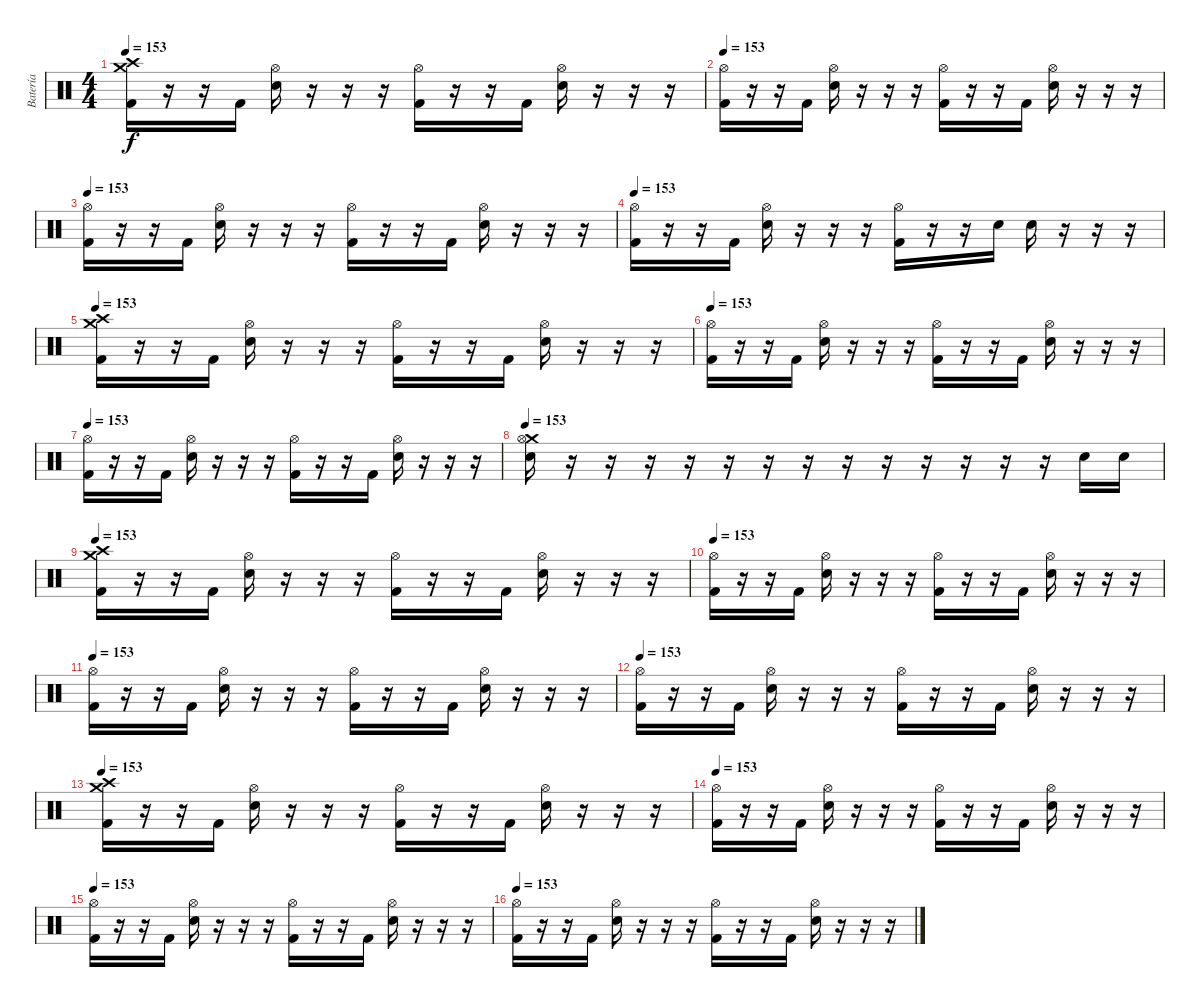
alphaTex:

\track ("Batería" "Batería") {instrument percussion}
\staff {score}
\articulation defaults
\ts (4 4)
\tempo 153
\clef neutral
\ks c
("Crash medium (hit)" "Crash high (hit)" "Kick (hit) 2").16{dy f} r.16 r.16 "Kick (hit) 2".16 ("Hi-Hat (open)" "Snare (hit) 2").16 r.16 r.16 r.16 ("Hi-Hat (open)" "Kick (hit) 2").16 r.16 r.16 "Kick (hit) 2".16 ("Hi-Hat (open)" "Snare (hit) 2").16 r.16 r.16 r.16 |
\tempo 153
("Hi-Hat (open)" "Kick (hit) 2").16 r.16 r.16 "Kick (hit) 2".16 ("Hi-Hat (open)" "Snare (hit) 2").16 r.16 r.16 r.16 ("Hi-Hat (open)" "Kick (hit) 2").16 r.16 r.16 "Kick (hit) 2".16 ("Hi-Hat (open)" "Snare (hit) 2").16 r.16 r.16 r.16 |
\tempo 153
("Hi-Hat (open)" "Kick (hit) 2").16 r.16 r.16 "Kick (hit) 2".16 ("Hi-Hat (open)" "Snare (hit) 2").16 r.16 r.16 r.16 ("Hi-Hat (open)" "Kick (hit) 2").16 r.16 r.16 "Kick (hit) 2".16 ("Hi-Hat (open)" "Snare (hit) 2").16 r.16 r.16 r.16 |
\tempo 153
("Hi-Hat (open)" "Kick (hit) 2").16 r.16 r.16 "Kick (hit) 2".16 ("Hi-Hat (open)" "Snare (hit) 2").16 r.16 r.16 r.16 ("Hi-Hat (open)" "Kick (hit) 2").16 r.16 r.16 "Snare (hit) 2".16 "Snare (hit) 2".16 r.16 r.16 r.16 |
\tempo 153
("Crash medium (hit)" "Crash high (hit)" "Kick (hit) 2").16 r.16 r.16 "Kick (hit) 2".16 ("Hi-Hat (open)" "Snare (hit) 2").16 r.16 r.16 r.16 ("Hi-Hat (open)" "Kick (hit) 2").16 r.16 r.16 "Kick (hit) 2".16 ("Hi-Hat (open)" "Snare (hit) 2").16 r.16 r.16 r.16 |
\tempo 153
("Hi-Hat (open)" "Kick (hit) 2").16 r.16 r.16 "Kick (hit) 2".16 ("Hi-Hat (open)" "Snare (hit) 2").16 r.16 r.16 r.16 ("Hi-Hat (open)" "Kick (hit) 2").16 r.16 r.16 "Kick (hit) 2".16 ("Hi-Hat (open)" "Snare (hit) 2").16 r.16 r.16 r.16 |
\tempo 153
("Hi-Hat (open)" "Kick (hit) 2").16 r.16 r.16 "Kick (hit) 2".16 ("Hi-Hat (open)" "Snare (hit) 2").16 r.16 r.16 r.16 ("Hi-Hat (open)" "Kick (hit) 2").16 r.16 r.16 "Kick (hit) 2".16 ("Hi-Hat (open)" "Snare (hit) 2").16 r.16 r.16 r.16 |
\tempo 153
("Crash medium (hit)" "Hi-Hat (open)" "Snare (hit) 2").16 r.16 r.16 r.16 r.16 r.16 r.16 r.16 r.16 r.16 r.16 r.16 r.16 r.16 "Snare (hit) 2".16 "Snare (hit) 2".16 |
\tempo 153
("Crash medium (hit)" "Crash high (hit)" "Kick (hit) 2").16 r.16 r.16 "Kick (hit) 2".16 ("Hi-Hat (open)" "Snare (hit) 2").16 r.16 r.16 r.16 ("Hi-Hat (open)" "Kick (hit) 2").16 r.16 r.16 "Kick (hit) 2".16 ("Hi-Hat (open)" "Snare (hit) 2").16 r.16 r.16 r.16 |
\tempo 153
("Hi-Hat (open)" "Kick (hit) 2").16 r.16 r.16 "Kick (hit) 2".16 ("Hi-Hat (open)" "Snare (hit) 2").16 r.16 r.16 r.16 ("Hi-Hat (open)" "Kick (hit) 2").16 r.16 r.16 "Kick (hit) 2".16 ("Hi-Hat (open)" "Snare (hit) 2").16 r.16 r.16 r.16 |
\tempo 153
("Hi-Hat (open)" "Kick (hit) 2").16 r.16 r.16 "Kick (hit) 2".16 ("Hi-Hat (open)" "Snare (hit) 2").16 r.16 r.16 r.16 ("Hi-Hat (open)" "Kick (hit) 2").16 r.16 r.16 "Kick (hit) 2".16 ("Hi-Hat (open)" "Snare (hit) 2").16 r.16 r.16 r.16 |
\tempo 153
("Hi-Hat (open)" "Kick (hit) 2").16 r.16 r.16 "Kick (hit) 2".16 ("Hi-Hat (open)" "Snare (hit) 2").16 r.16 r.16 r.16 ("Hi-Hat (open)" "Kick (hit) 2").16 r.16 r.16 "Kick (hit) 2".16 ("Hi-Hat (open)" "Snare (hit) 2").16 r.16 r.16 r.16 |
\tempo 153
("Crash medium (hit)" "Crash high (hit)" "Kick (hit) 2").16 r.16 r.16 "Kick (hit) 2".16 ("Hi-Hat (open)" "Snare (hit) 2").16 r.16 r.16 r.16 ("Hi-Hat (open)" "Kick (hit) 2").16 r.16 r.16 "Kick (hit) 2".16 ("Hi-Hat (open)" "Snare (hit) 2").16 r.16 r.16 r.16 |
\tempo 153
("Hi-Hat (open)" "Kick (hit) 2").16 r.16 r.16 "Kick (hit) 2".16 ("Hi-Hat (open)" "Snare (hit) 2").16 r.16 r.16 r.16 ("Hi-Hat (open)" "Kick (hit) 2").16 r.16 r.16 "Kick (hit) 2".16 ("Hi-Hat (open)" "Snare (hit) 2").16 r.16 r.16 r.16 |
\tempo 153
("Hi-Hat (open)" "Kick (hit) 2").16 r.16 r.16 "Kick (hit) 2".16 ("Hi-Hat (open)" "Snare (hit) 2").16 r.16 r.16 r.16 ("Hi-Hat (open)" "Kick (hit) 2").16 r.16 r.16 "Kick (hit) 2".16 ("Hi-Hat (open)" "Snare (hit) 2").16 r.16 r.16 r.16 |
\tempo 153
("Hi-Hat (open)" "Kick (hit) 2").16 r.16 r.16 "Kick (hit) 2".16 ("Hi-Hat (open)" "Snare (hit) 2").16 r.16 r.16 r.16 ("Hi-Hat (open)" "Kick (hit) 2").16 r.16 r.16 "Kick (hit) 2".16 ("Hi-Hat (open)" "Snare (hit) 2").16 r.16 r.16 r.16
